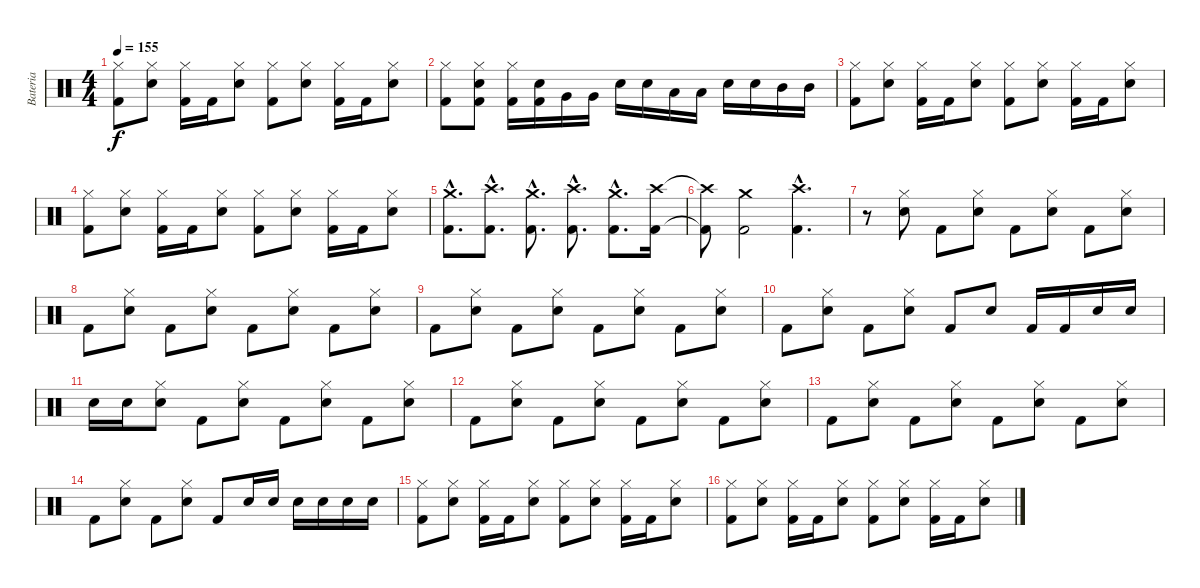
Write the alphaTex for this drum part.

\track ("Bateria" "Bateria") {instrument percussion}
\staff {score}
\articulation defaults
\ts (4 4)
\tempo 155
\clef neutral
\ks c
("Kick (hit) 2" "Hi-Hat (closed)").8{dy f} ("Electric Snare (hit)" "Hi-Hat (closed)").8 ("Kick (hit) 2" "Hi-Hat (closed)").16 "Kick (hit) 2".16 ("Electric Snare (hit)" "Hi-Hat (closed)").8 ("Kick (hit) 2" "Hi-Hat (closed)").8 ("Electric Snare (hit)" "Hi-Hat (closed)").8 ("Kick (hit) 2" "Hi-Hat (closed)").16 "Kick (hit) 2".16 ("Electric Snare (hit)" "Hi-Hat (closed)").8 |
("Kick (hit) 2" "Hi-Hat (closed)").8 ("Kick (hit) 2" "Hi-Hat (closed)" "Electric Snare (hit)").8 ("Kick (hit) 2" "Hi-Hat (closed)").16 ("Kick (hit) 2" "Electric Snare (hit)").16 "Very Low Tom (hit)".16 "Very Low Tom (hit)".16 "Electric Snare (hit)".16 "Electric Snare (hit)".16 "Low Tom (hit)".16 "Low Tom (hit)".16 "Electric Snare (hit)".16 "Electric Snare (hit)".16 "Mid Tom (hit)".16 "Mid Tom (hit)".16 |
("Kick (hit) 2" "Hi-Hat (closed)").8 ("Electric Snare (hit)" "Hi-Hat (closed)").8 ("Kick (hit) 2" "Hi-Hat (closed)").16 "Kick (hit) 2".16 ("Electric Snare (hit)" "Hi-Hat (closed)").8 ("Kick (hit) 2" "Hi-Hat (closed)").8 ("Electric Snare (hit)" "Hi-Hat (closed)").8 ("Kick (hit) 2" "Hi-Hat (closed)").16 "Kick (hit) 2".16 ("Electric Snare (hit)" "Hi-Hat (closed)").8 |
("Kick (hit) 2" "Hi-Hat (closed)").8 ("Electric Snare (hit)" "Hi-Hat (closed)").8 ("Kick (hit) 2" "Hi-Hat (closed)").16 "Kick (hit) 2".16 ("Electric Snare (hit)" "Hi-Hat (closed)").8 ("Kick (hit) 2" "Hi-Hat (closed)").8 ("Electric Snare (hit)" "Hi-Hat (closed)").8 ("Kick (hit) 2" "Hi-Hat (closed)").16 "Kick (hit) 2".16 ("Electric Snare (hit)" "Hi-Hat (closed)").8 |
("Kick (hit) 2"{hac} "Crash medium (hit)"{hac}).8{d} ("Kick (hit) 2"{hac} "Crash high (hit)"{hac}).8{d} ("Kick (hit) 2"{hac} "Crash medium (hit)"{hac}).8{d} ("Kick (hit) 2"{hac} "Crash high (hit)"{hac}).8{d} ("Kick (hit) 2"{hac} "Crash medium (hit)"{hac}).8{d} ("Kick (hit) 2" "Crash high (hit)").16 |
("Kick (hit) 2"{t} "Crash high (hit)"{t}).8 ("Kick (hit) 2" "Crash medium (hit)").2 ("Kick (hit) 2"{hac} "Crash high (hit)"{hac}).4{d} |
r.8 ("Electric Snare (hit)" "Hi-Hat (closed)").8 "Kick (hit) 2".8 ("Electric Snare (hit)" "Hi-Hat (closed)").8 "Kick (hit) 2".8 ("Electric Snare (hit)" "Hi-Hat (closed)").8 "Kick (hit) 2".8 ("Electric Snare (hit)" "Hi-Hat (closed)").8 |
"Kick (hit) 2".8 ("Electric Snare (hit)" "Hi-Hat (closed)").8 "Kick (hit) 2".8 ("Electric Snare (hit)" "Hi-Hat (closed)").8 "Kick (hit) 2".8 ("Electric Snare (hit)" "Hi-Hat (closed)").8 "Kick (hit) 2".8 ("Electric Snare (hit)" "Hi-Hat (closed)").8 |
"Kick (hit) 2".8 ("Electric Snare (hit)" "Hi-Hat (closed)").8 "Kick (hit) 2".8 ("Electric Snare (hit)" "Hi-Hat (closed)").8 "Kick (hit) 2".8 ("Electric Snare (hit)" "Hi-Hat (closed)").8 "Kick (hit) 2".8 ("Electric Snare (hit)" "Hi-Hat (closed)").8 |
"Kick (hit) 2".8 ("Electric Snare (hit)" "Hi-Hat (closed)").8 "Kick (hit) 2".8 ("Electric Snare (hit)" "Hi-Hat (closed)").8 "Kick (hit) 2".8 "Electric Snare (hit)".8 "Kick (hit) 2".16 "Kick (hit) 2".16 "Electric Snare (hit)".16 "Electric Snare (hit)".16 |
"Electric Snare (hit)".16 "Electric Snare (hit)".16 ("Electric Snare (hit)" "Hi-Hat (closed)").8 "Kick (hit) 2".8 ("Electric Snare (hit)" "Hi-Hat (closed)").8 "Kick (hit) 2".8 ("Electric Snare (hit)" "Hi-Hat (closed)").8 "Kick (hit) 2".8 ("Electric Snare (hit)" "Hi-Hat (closed)").8 |
"Kick (hit) 2".8 ("Electric Snare (hit)" "Hi-Hat (closed)").8 "Kick (hit) 2".8 ("Electric Snare (hit)" "Hi-Hat (closed)").8 "Kick (hit) 2".8 ("Electric Snare (hit)" "Hi-Hat (closed)").8 "Kick (hit) 2".8 ("Electric Snare (hit)" "Hi-Hat (closed)").8 |
"Kick (hit) 2".8 ("Electric Snare (hit)" "Hi-Hat (closed)").8 "Kick (hit) 2".8 ("Electric Snare (hit)" "Hi-Hat (closed)").8 "Kick (hit) 2".8 ("Electric Snare (hit)" "Hi-Hat (closed)").8 "Kick (hit) 2".8 ("Electric Snare (hit)" "Hi-Hat (closed)").8 |
"Kick (hit) 2".8 ("Electric Snare (hit)" "Hi-Hat (closed)").8 "Kick (hit) 2".8 ("Electric Snare (hit)" "Hi-Hat (closed)").8 "Kick (hit) 2".8 "Electric Snare (hit)".16 "Electric Snare (hit)".16 "Electric Snare (hit)".16 "Electric Snare (hit)".16 "Electric Snare (hit)".16 "Electric Snare (hit)".16 |
("Kick (hit) 2" "Hi-Hat (closed)").8 ("Electric Snare (hit)" "Hi-Hat (closed)").8 ("Kick (hit) 2" "Hi-Hat (closed)").16 "Kick (hit) 2".16 ("Electric Snare (hit)" "Hi-Hat (closed)").8 ("Kick (hit) 2" "Hi-Hat (closed)").8 ("Electric Snare (hit)" "Hi-Hat (closed)").8 ("Kick (hit) 2" "Hi-Hat (closed)").16 "Kick (hit) 2".16 ("Electric Snare (hit)" "Hi-Hat (closed)").8 |
("Kick (hit) 2" "Hi-Hat (closed)").8 ("Electric Snare (hit)" "Hi-Hat (closed)").8 ("Kick (hit) 2" "Hi-Hat (closed)").16 "Kick (hit) 2".16 ("Electric Snare (hit)" "Hi-Hat (closed)").8 ("Kick (hit) 2" "Hi-Hat (closed)").8 ("Electric Snare (hit)" "Hi-Hat (closed)").8 ("Kick (hit) 2" "Hi-Hat (closed)").16 "Kick (hit) 2".16 ("Electric Snare (hit)" "Hi-Hat (closed)").8
